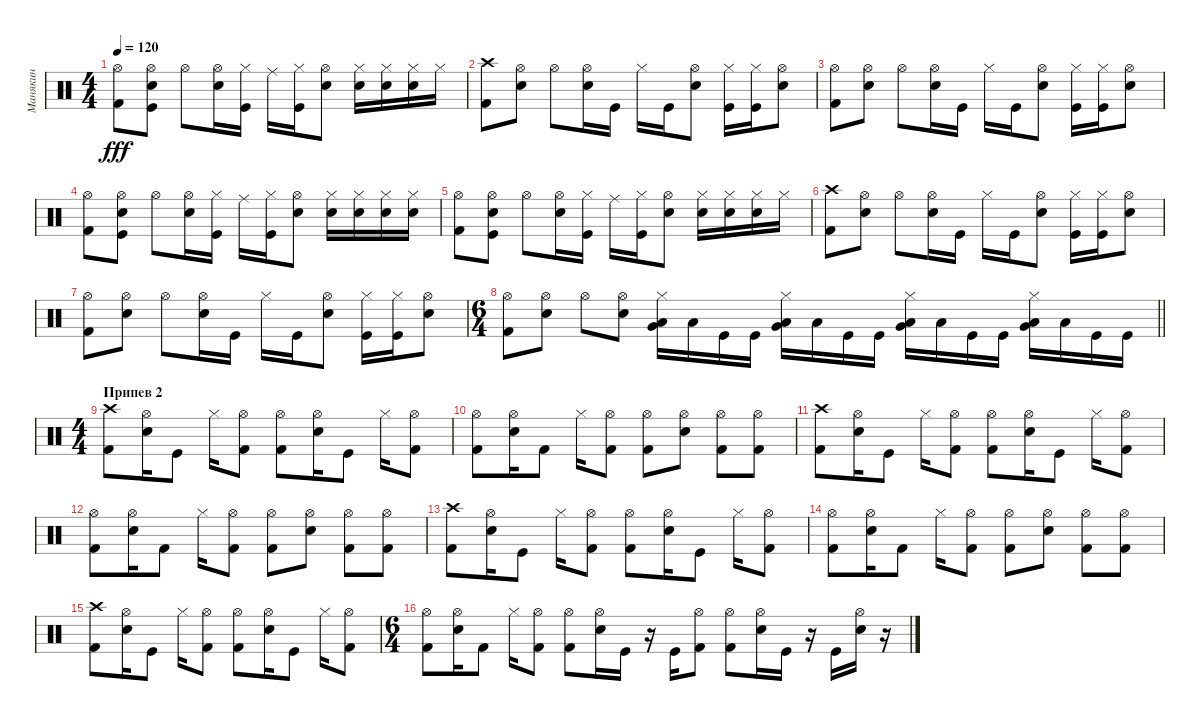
\track ("Манякин" "Манякин") {instrument percussion}
\staff {score}
\articulation defaults
\ts (4 4)
\tempo 120
\clef neutral
\ks c
("Hi-Hat (open)" "Kick (hit) 2").8{dy fff} ("Hi-Hat (open)" "Snare (hit) 2" "Kick (hit)").8 "Hi-Hat (open)".8 ("Snare (hit) 2" "Hi-Hat (open)").16 ("Hi-Hat (closed)" "Kick (hit)").16 "Ride (middle)".16 ("Hi-Hat (closed)" "Kick (hit)").16 ("Hi-Hat (open)" "Snare (hit) 2").8 ("Hi-Hat (closed)" "Snare (hit) 2").16 ("Hi-Hat (closed)" "Snare (hit) 2").16 ("Hi-Hat (closed)" "Snare (hit) 2").16 "Hi-Hat (closed)".16 |
("Crash high (hit)" "Kick (hit) 2").8 ("Hi-Hat (open)" "Snare (hit) 2").8 "Hi-Hat (open)".8 ("Hi-Hat (open)" "Snare (hit) 2").16 "Kick (hit)".16 "Hi-Hat (closed)".16 "Kick (hit)".16 ("Hi-Hat (open)" "Snare (hit) 2").8 ("Hi-Hat (closed)" "Kick (hit)").16 ("Hi-Hat (closed)" "Kick (hit)").16 ("Hi-Hat (open)" "Snare (hit) 2").8 |
("Hi-Hat (open)" "Kick (hit) 2").8 ("Hi-Hat (open)" "Snare (hit) 2").8 "Hi-Hat (open)".8 ("Hi-Hat (open)" "Snare (hit) 2").16 "Kick (hit)".16 "Hi-Hat (closed)".16 "Kick (hit)".16 ("Hi-Hat (open)" "Snare (hit) 2").8 ("Hi-Hat (closed)" "Kick (hit)").16 ("Hi-Hat (closed)" "Kick (hit)").16 ("Hi-Hat (open)" "Snare (hit) 2").8 |
("Hi-Hat (open)" "Kick (hit) 2").8 ("Hi-Hat (open)" "Snare (hit) 2" "Kick (hit)").8 "Hi-Hat (open)".8 ("Snare (hit) 2" "Hi-Hat (open)").16 ("Hi-Hat (closed)" "Kick (hit)").16 "Ride (middle)".16 ("Hi-Hat (closed)" "Kick (hit)").16 ("Hi-Hat (open)" "Snare (hit) 2").8 ("Hi-Hat (closed)" "Snare (hit) 2").16 ("Hi-Hat (closed)" "Snare (hit) 2").16 ("Hi-Hat (closed)" "Snare (hit) 2").16 ("Hi-Hat (closed)" "Snare (hit) 2").16 |
("Hi-Hat (open)" "Kick (hit) 2").8 ("Hi-Hat (open)" "Snare (hit) 2" "Kick (hit)").8 "Hi-Hat (open)".8 ("Snare (hit) 2" "Hi-Hat (open)").16 ("Hi-Hat (closed)" "Kick (hit)").16 "Ride (middle)".16 ("Hi-Hat (closed)" "Kick (hit)").16 ("Hi-Hat (open)" "Snare (hit) 2").8 ("Hi-Hat (closed)" "Snare (hit) 2").16 ("Hi-Hat (closed)" "Snare (hit) 2").16 ("Hi-Hat (closed)" "Snare (hit) 2").16 "Hi-Hat (closed)".16 |
("Crash high (hit)" "Kick (hit) 2").8 ("Hi-Hat (open)" "Snare (hit) 2").8 "Hi-Hat (open)".8 ("Hi-Hat (open)" "Snare (hit) 2").16 "Kick (hit)".16 "Hi-Hat (closed)".16 "Kick (hit)".16 ("Hi-Hat (open)" "Snare (hit) 2").8 ("Hi-Hat (closed)" "Kick (hit)").16 ("Hi-Hat (closed)" "Kick (hit)").16 ("Hi-Hat (open)" "Snare (hit) 2").8 |
("Hi-Hat (open)" "Kick (hit) 2").8 ("Hi-Hat (open)" "Snare (hit) 2").8 "Hi-Hat (open)".8 ("Hi-Hat (open)" "Snare (hit) 2").16 "Kick (hit)".16 "Hi-Hat (closed)".16 "Kick (hit)".16 ("Hi-Hat (open)" "Snare (hit) 2").8 ("Hi-Hat (closed)" "Kick (hit)").16 ("Hi-Hat (closed)" "Kick (hit)").16 ("Hi-Hat (open)" "Snare (hit) 2").8 |
\ts (6 4)
\barLineRight lightlight
("Hi-Hat (open)" "Kick (hit) 2").8 ("Hi-Hat (open)" "Snare (hit) 2").8 "Hi-Hat (open)".8 ("Hi-Hat (open)" "Snare (hit) 2").8 ("Hi-Hat (closed)" "Low Floor Tom (hit)" "Very Low Tom (hit)").16 "Low Floor Tom (hit)".16 "Kick (hit)".16 "Kick (hit)".16 ("Hi-Hat (closed)" "Low Floor Tom (hit)" "Very Low Tom (hit)").16 "Low Floor Tom (hit)".16 "Kick (hit)".16 "Kick (hit)".16 ("Hi-Hat (closed)" "Low Tom (hit)" "Very Low Tom (hit)").16 "Low Floor Tom (hit)".16 "Kick (hit)".16 "Kick (hit)".16 ("Hi-Hat (closed)" "Very Low Tom (hit)" "Low Tom (hit)").16 "Low Floor Tom (hit)".16 "Kick (hit)".16 "Kick (hit)".16 |
\ts (4 4)
\section ("" "Припев 2")
("Crash high (hit)" "Kick (hit) 2").8 ("Hi-Hat (open)" "Snare (hit) 2").16 "Kick (hit)".8 "Hi-Hat (closed)".16 ("Hi-Hat (open)" "Kick (hit) 2").8 ("Hi-Hat (open)" "Kick (hit) 2").8 ("Hi-Hat (open)" "Snare (hit) 2").16 "Kick (hit)".8 "Hi-Hat (closed)".16 ("Kick (hit) 2" "Hi-Hat (open)").8 |
("Hi-Hat (open)" "Kick (hit) 2").8 ("Hi-Hat (open)" "Snare (hit) 2").16 "Kick (hit) 2".8 "Hi-Hat (closed)".16 ("Hi-Hat (open)" "Kick (hit) 2").8 ("Kick (hit) 2" "Hi-Hat (open)").8 ("Hi-Hat (open)" "Snare (hit) 2").8 ("Hi-Hat (open)" "Kick (hit) 2").8 ("Hi-Hat (open)" "Kick (hit) 2").8 |
("Crash high (hit)" "Kick (hit) 2").8 ("Hi-Hat (open)" "Snare (hit) 2").16 "Kick (hit)".8 "Hi-Hat (closed)".16 ("Hi-Hat (open)" "Kick (hit) 2").8 ("Hi-Hat (open)" "Kick (hit) 2").8 ("Hi-Hat (open)" "Snare (hit) 2").16 "Kick (hit)".8 "Hi-Hat (closed)".16 ("Kick (hit) 2" "Hi-Hat (open)").8 |
("Hi-Hat (open)" "Kick (hit) 2").8 ("Hi-Hat (open)" "Snare (hit) 2").16 "Kick (hit) 2".8 "Hi-Hat (closed)".16 ("Hi-Hat (open)" "Kick (hit) 2").8 ("Kick (hit) 2" "Hi-Hat (open)").8 ("Hi-Hat (open)" "Snare (hit) 2").8 ("Hi-Hat (open)" "Kick (hit) 2").8 ("Hi-Hat (open)" "Kick (hit) 2").8 |
("Crash high (hit)" "Kick (hit) 2").8 ("Hi-Hat (open)" "Snare (hit) 2").16 "Kick (hit)".8 "Hi-Hat (closed)".16 ("Hi-Hat (open)" "Kick (hit) 2").8 ("Hi-Hat (open)" "Kick (hit) 2").8 ("Hi-Hat (open)" "Snare (hit) 2").16 "Kick (hit)".8 "Hi-Hat (closed)".16 ("Kick (hit) 2" "Hi-Hat (open)").8 |
("Hi-Hat (open)" "Kick (hit) 2").8 ("Hi-Hat (open)" "Snare (hit) 2").16 "Kick (hit) 2".8 "Hi-Hat (closed)".16 ("Hi-Hat (open)" "Kick (hit) 2").8 ("Kick (hit) 2" "Hi-Hat (open)").8 ("Hi-Hat (open)" "Snare (hit) 2").8 ("Hi-Hat (open)" "Kick (hit) 2").8 ("Hi-Hat (open)" "Kick (hit) 2").8 |
("Crash high (hit)" "Kick (hit) 2").8 ("Hi-Hat (open)" "Snare (hit) 2").16 "Kick (hit)".8 "Hi-Hat (closed)".16 ("Hi-Hat (open)" "Kick (hit) 2").8 ("Hi-Hat (open)" "Kick (hit) 2").8 ("Hi-Hat (open)" "Snare (hit) 2").16 "Kick (hit)".8 "Hi-Hat (closed)".16 ("Kick (hit) 2" "Hi-Hat (open)").8 |
\ts (6 4)
("Hi-Hat (open)" "Kick (hit) 2").8 ("Hi-Hat (open)" "Snare (hit) 2").16 "Kick (hit) 2".8 "Hi-Hat (closed)".16 ("Hi-Hat (open)" "Kick (hit) 2").8 ("Kick (hit) 2" "Hi-Hat (open)").8 ("Hi-Hat (open)" "Snare (hit) 2").16 "Kick (hit)".16 r.16 "Kick (hit)".16 ("Hi-Hat (open)" "Kick (hit) 2").8 ("Hi-Hat (open)" "Kick (hit) 2").8 ("Hi-Hat (open)" "Snare (hit) 2").16 "Kick (hit)".16 r.16 "Kick (hit)".16 ("Hi-Hat (open)" "Snare (hit) 2").16 r.16
